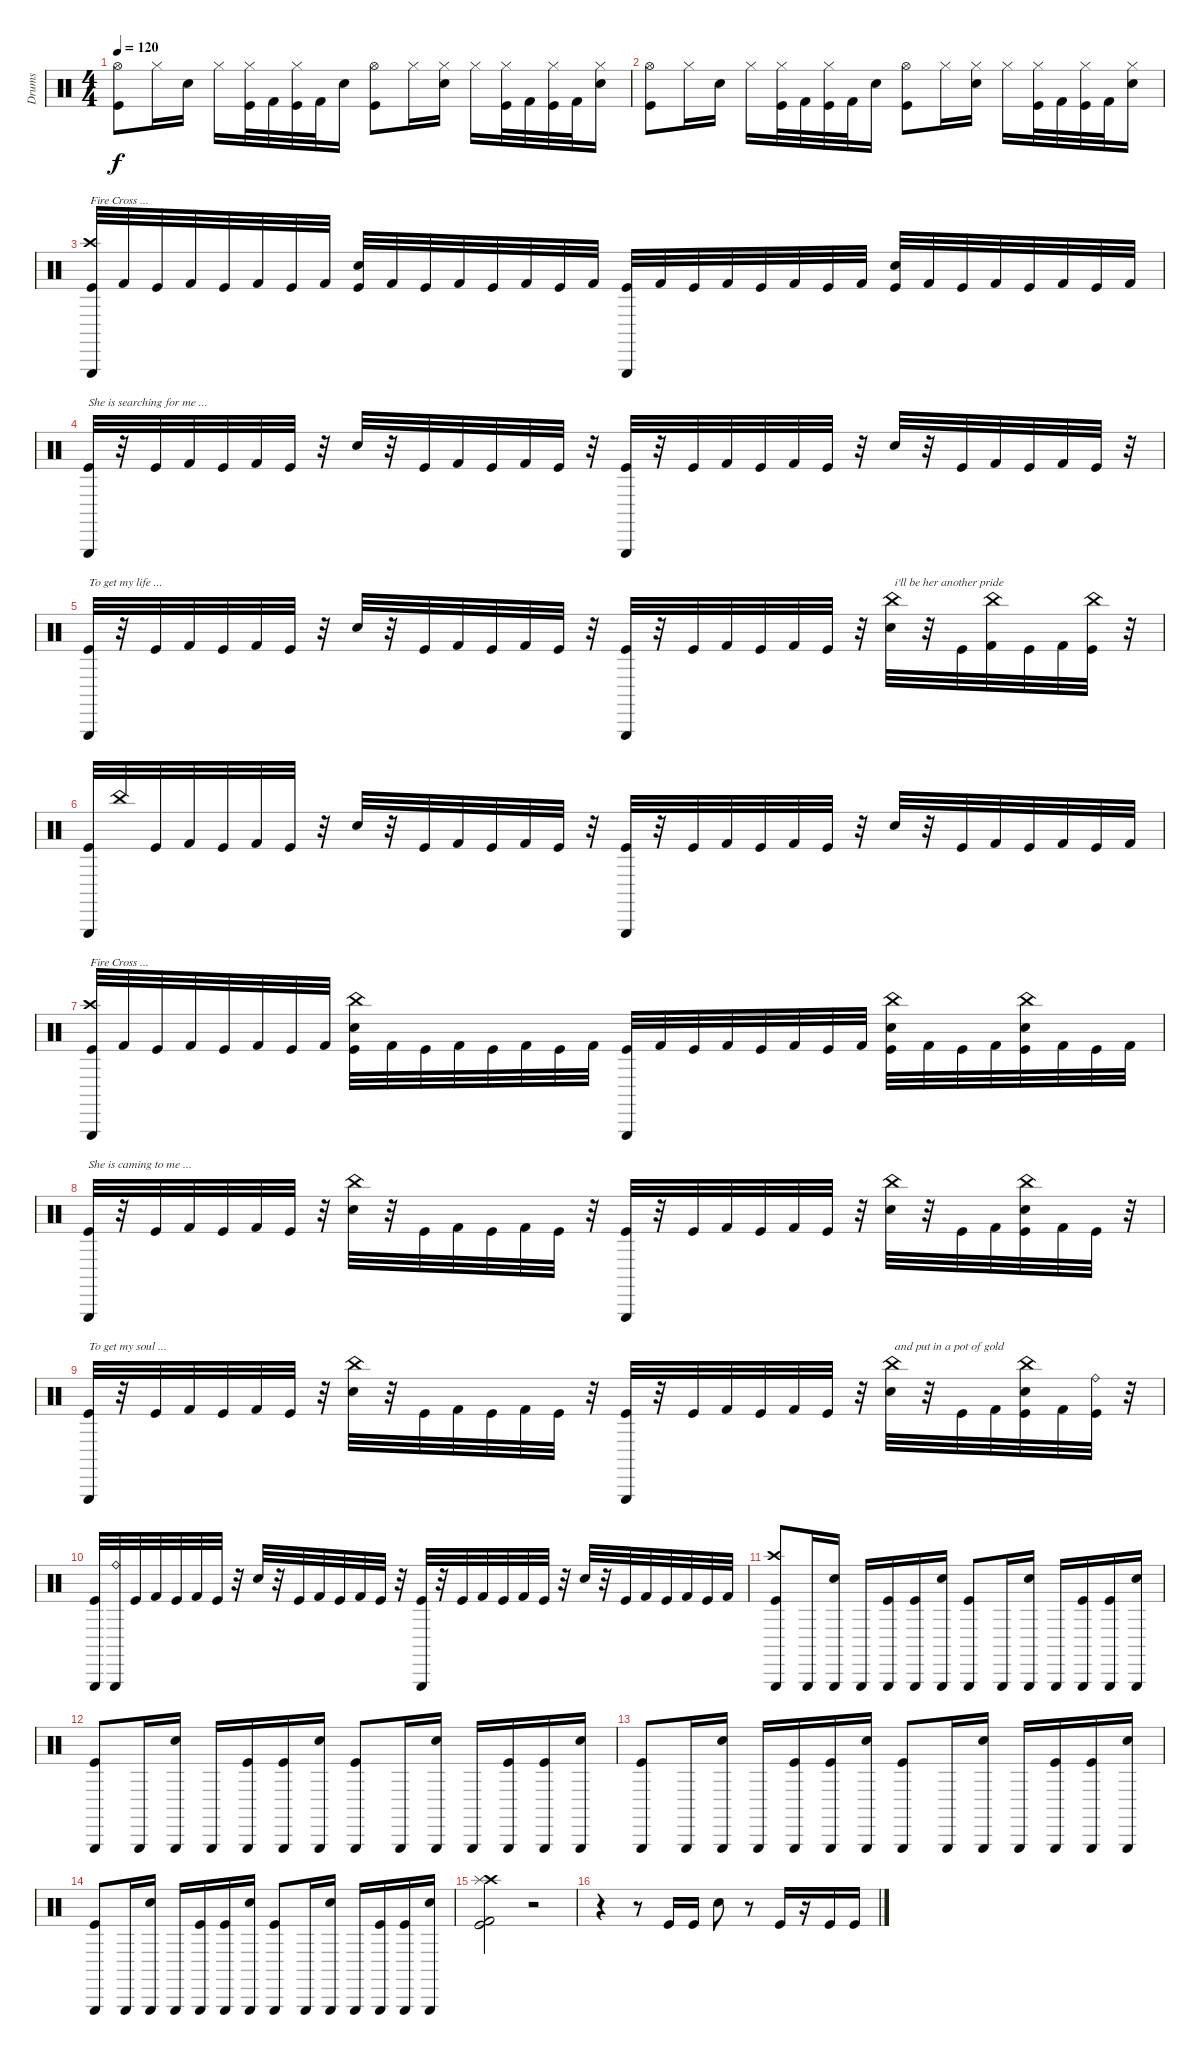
\track ("Drums" "Drums") {instrument percussion}
\staff {score}
\articulation defaults
\ts (4 4)
\tempo 120
\clef neutral
\ks c
("Hi-Hat (open)" "Kick (hit)").8{dy f} "Hi-Hat (closed)".16 "Snare (hit) 2".16 "Hi-Hat (closed)".16 ("Hi-Hat (closed)" "Kick (hit)").32 "Kick (hit) 2".32 ("Hi-Hat (closed)" "Kick (hit)").32 "Kick (hit) 2".32 "Snare (hit) 2".16 ("Hi-Hat (open)" "Kick (hit)").8 "Hi-Hat (closed)".16 ("Hi-Hat (closed)" "Snare (hit) 2").16 "Hi-Hat (closed)".16 ("Hi-Hat (closed)" "Kick (hit)").32 "Kick (hit) 2".32 ("Hi-Hat (closed)" "Kick (hit)").32 "Kick (hit) 2".32 ("Hi-Hat (closed)" "Snare (hit) 2").16 |
("Hi-Hat (open)" "Kick (hit)").8 "Hi-Hat (closed)".16 "Snare (hit) 2".16 "Hi-Hat (closed)".16 ("Hi-Hat (closed)" "Kick (hit)").32 "Kick (hit) 2".32 ("Hi-Hat (closed)" "Kick (hit)").32 "Kick (hit) 2".32 "Snare (hit) 2".16 ("Hi-Hat (open)" "Kick (hit)").8 "Hi-Hat (closed)".16 ("Hi-Hat (closed)" "Snare (hit) 2").16 "Hi-Hat (closed)".16 ("Hi-Hat (closed)" "Kick (hit)").32 "Kick (hit) 2".32 ("Hi-Hat (closed)" "Kick (hit)").32 "Kick (hit) 2".32 ("Hi-Hat (closed)" "Snare (hit) 2").16 |
("Crash high (hit)" "Triangle (hit)" "Kick (hit)").32{txt "Fire Cross ..."} "Kick (hit) 2".32 "Kick (hit)".32 "Kick (hit) 2".32 "Kick (hit)".32 "Kick (hit) 2".32 "Kick (hit)".32 "Kick (hit) 2".32 ("Snare (hit) 2" "Kick (hit)").32 "Kick (hit) 2".32 "Kick (hit)".32 "Kick (hit) 2".32 "Kick (hit)".32 "Kick (hit) 2".32 "Kick (hit)".32 "Kick (hit) 2".32 ("Triangle (hit)" "Kick (hit)").32 "Kick (hit) 2".32 "Kick (hit)".32 "Kick (hit) 2".32 "Kick (hit)".32 "Kick (hit) 2".32 "Kick (hit)".32 "Kick (hit) 2".32 ("Snare (hit) 2" "Kick (hit)").32 "Kick (hit) 2".32 "Kick (hit)".32 "Kick (hit) 2".32 "Kick (hit)".32 "Kick (hit) 2".32 "Kick (hit)".32 "Kick (hit) 2".32 |
("Triangle (hit)" "Kick (hit)").32{txt "She is searching for me ..."} r.32 "Kick (hit)".32 "Kick (hit) 2".32 "Kick (hit)".32 "Kick (hit) 2".32 "Kick (hit)".32 r.32 "Snare (hit) 2".32 r.32 "Kick (hit)".32 "Kick (hit) 2".32 "Kick (hit)".32 "Kick (hit) 2".32 "Kick (hit)".32 r.32 ("Triangle (hit)" "Kick (hit)").32 r.32 "Kick (hit)".32 "Kick (hit) 2".32 "Kick (hit)".32 "Kick (hit) 2".32 "Kick (hit)".32 r.32 "Snare (hit) 2".32 r.32 "Kick (hit)".32 "Kick (hit) 2".32 "Kick (hit)".32 "Kick (hit) 2".32 "Kick (hit)".32 r.32 |
("Triangle (hit)" "Kick (hit)").32{txt "To get my life ..."} r.32 "Kick (hit)".32 "Kick (hit) 2".32 "Kick (hit)".32 "Kick (hit) 2".32 "Kick (hit)".32 r.32 "Snare (hit) 2".32 r.32 "Kick (hit)".32 "Kick (hit) 2".32 "Kick (hit)".32 "Kick (hit) 2".32 "Kick (hit)".32 r.32 ("Triangle (hit)" "Kick (hit)").32 r.32 "Kick (hit)".32 "Kick (hit) 2".32 "Kick (hit)".32 "Kick (hit) 2".32 "Kick (hit)".32 r.32 ("China (hit)" "Snare (hit) 2").32{txt "i'll be her another pride"} r.32 "Kick (hit)".32 ("China (hit)" "Kick (hit) 2").32 "Kick (hit)".32 "Kick (hit) 2".32 ("China (hit)" "Kick (hit)").32 r.32 |
("Triangle (hit)" "Kick (hit)").32 "China (hit)".32 "Kick (hit)".32 "Kick (hit) 2".32 "Kick (hit)".32 "Kick (hit) 2".32 "Kick (hit)".32 r.32 "Snare (hit) 2".32 r.32 "Kick (hit)".32 "Kick (hit) 2".32 "Kick (hit)".32 "Kick (hit) 2".32 "Kick (hit)".32 r.32 ("Triangle (hit)" "Kick (hit)").32 r.32 "Kick (hit)".32 "Kick (hit) 2".32 "Kick (hit)".32 "Kick (hit) 2".32 "Kick (hit)".32 r.32 "Snare (hit) 2".32 r.32 "Kick (hit)".32 "Kick (hit) 2".32 "Kick (hit)".32 "Kick (hit) 2".32 "Kick (hit)".32 "Kick (hit) 2".32 |
("Crash high (hit)" "Triangle (hit)" "Kick (hit)").32{txt "Fire Cross ..."} "Kick (hit) 2".32 "Kick (hit)".32 "Kick (hit) 2".32 "Kick (hit)".32 "Kick (hit) 2".32 "Kick (hit)".32 "Kick (hit) 2".32 ("China (hit)" "Snare (hit) 2" "Kick (hit)").32 "Kick (hit) 2".32 "Kick (hit)".32 "Kick (hit) 2".32 "Kick (hit)".32 "Kick (hit) 2".32 "Kick (hit)".32 "Kick (hit) 2".32 ("Triangle (hit)" "Kick (hit)").32 "Kick (hit) 2".32 "Kick (hit)".32 "Kick (hit) 2".32 "Kick (hit)".32 "Kick (hit) 2".32 "Kick (hit)".32 "Kick (hit) 2".32 ("China (hit)" "Snare (hit) 2" "Kick (hit)").32 "Kick (hit) 2".32 "Kick (hit)".32 "Kick (hit) 2".32 ("China (hit)" "Snare (hit) 2" "Kick (hit)").32 "Kick (hit) 2".32 "Kick (hit)".32 "Kick (hit) 2".32 |
("Triangle (hit)" "Kick (hit)").32{txt "She is caming to me ..."} r.32 "Kick (hit)".32 "Kick (hit) 2".32 "Kick (hit)".32 "Kick (hit) 2".32 "Kick (hit)".32 r.32 ("China (hit)" "Snare (hit) 2").32 r.32 "Kick (hit)".32 "Kick (hit) 2".32 "Kick (hit)".32 "Kick (hit) 2".32 "Kick (hit)".32 r.32 ("Triangle (hit)" "Kick (hit)").32 r.32 "Kick (hit)".32 "Kick (hit) 2".32 "Kick (hit)".32 "Kick (hit) 2".32 "Kick (hit)".32 r.32 ("China (hit)" "Snare (hit) 2").32 r.32 "Kick (hit)".32 "Kick (hit) 2".32 ("China (hit)" "Snare (hit) 2" "Kick (hit)").32 "Kick (hit) 2".32 "Kick (hit)".32 r.32 |
("Triangle (hit)" "Kick (hit)").32{txt "To get my soul ..."} r.32 "Kick (hit)".32 "Kick (hit) 2".32 "Kick (hit)".32 "Kick (hit) 2".32 "Kick (hit)".32 r.32 ("China (hit)" "Snare (hit) 2").32 r.32 "Kick (hit)".32 "Kick (hit) 2".32 "Kick (hit)".32 "Kick (hit) 2".32 "Kick (hit)".32 r.32 ("Triangle (hit)" "Kick (hit)").32 r.32 "Kick (hit)".32 "Kick (hit) 2".32 "Kick (hit)".32 "Kick (hit) 2".32 "Kick (hit)".32 r.32 ("China (hit)" "Snare (hit) 2").32{txt "and put in a pot of gold"} r.32 "Kick (hit)".32 "Kick (hit) 2".32 ("China (hit)" "Snare (hit) 2" "Kick (hit)").32 "Kick (hit) 2".32 ("Ride (bell)" "Kick (hit)").32 r.32 |
("Triangle (hit)" "Kick (hit)").32 ("Ride (bell)" "Triangle (hit)").32 "Kick (hit)".32 "Kick (hit) 2".32 "Kick (hit)".32 "Kick (hit) 2".32 "Kick (hit)".32 r.32 "Snare (hit) 2".32 r.32 "Kick (hit)".32 "Kick (hit) 2".32 "Kick (hit)".32 "Kick (hit) 2".32 "Kick (hit)".32 r.32 ("Triangle (hit)" "Kick (hit)").32 r.32 "Kick (hit)".32 "Kick (hit) 2".32 "Kick (hit)".32 "Kick (hit) 2".32 "Kick (hit)".32 r.32 "Snare (hit) 2".32 r.32 "Kick (hit)".32 "Kick (hit) 2".32 "Kick (hit)".32 "Kick (hit) 2".32 "Kick (hit)".32 "Kick (hit) 2".32 |
("Crash high (hit)" "Triangle (hit)" "Kick (hit)").8 "Triangle (hit)".16 ("Triangle (hit)" "Snare (hit) 2").16 "Triangle (hit)".16 ("Triangle (hit)" "Kick (hit)").16 ("Triangle (hit)" "Kick (hit)").16 ("Triangle (hit)" "Snare (hit) 2").16 ("Triangle (hit)" "Kick (hit)").8 "Triangle (hit)".16 ("Triangle (hit)" "Snare (hit) 2").16 "Triangle (hit)".16 ("Triangle (hit)" "Kick (hit)").16 ("Triangle (hit)" "Kick (hit)").16 ("Triangle (hit)" "Snare (hit) 2").16 |
("Triangle (hit)" "Kick (hit)").8 "Triangle (hit)".16 ("Triangle (hit)" "Snare (hit) 2").16 "Triangle (hit)".16 ("Triangle (hit)" "Kick (hit)").16 ("Triangle (hit)" "Kick (hit)").16 ("Triangle (hit)" "Snare (hit) 2").16 ("Triangle (hit)" "Kick (hit)").8 "Triangle (hit)".16 ("Triangle (hit)" "Snare (hit) 2").16 "Triangle (hit)".16 ("Triangle (hit)" "Kick (hit)").16 ("Triangle (hit)" "Kick (hit)").16 ("Triangle (hit)" "Snare (hit) 2").16 |
("Triangle (hit)" "Kick (hit)").8 "Triangle (hit)".16 ("Triangle (hit)" "Snare (hit) 2").16 "Triangle (hit)".16 ("Triangle (hit)" "Kick (hit)").16 ("Triangle (hit)" "Kick (hit)").16 ("Triangle (hit)" "Snare (hit) 2").16 ("Triangle (hit)" "Kick (hit)").8 "Triangle (hit)".16 ("Triangle (hit)" "Snare (hit) 2").16 "Triangle (hit)".16 ("Triangle (hit)" "Kick (hit)").16 ("Triangle (hit)" "Kick (hit)").16 ("Triangle (hit)" "Snare (hit) 2").16 |
("Triangle (hit)" "Kick (hit)").8 "Triangle (hit)".16 ("Triangle (hit)" "Snare (hit) 2").16 "Triangle (hit)".16 ("Triangle (hit)" "Kick (hit)").16 ("Triangle (hit)" "Kick (hit)").16 ("Triangle (hit)" "Snare (hit) 2").16 ("Triangle (hit)" "Kick (hit)").8 "Triangle (hit)".16 ("Triangle (hit)" "Snare (hit) 2").16 "Triangle (hit)".16 ("Triangle (hit)" "Kick (hit)").16 ("Triangle (hit)" "Kick (hit)").16 ("Triangle (hit)" "Snare (hit) 2").16 |
("Crash high (hit)" "Splash (hit)" "Kick (hit)" "Kick (hit) 2").2 r.2 |
r.4 r.8 "Kick (hit)".16 "Kick (hit)".16 "Snare (hit) 2".8 r.8 "Kick (hit)".16 r.16 "Kick (hit)".16 "Kick (hit)".16
